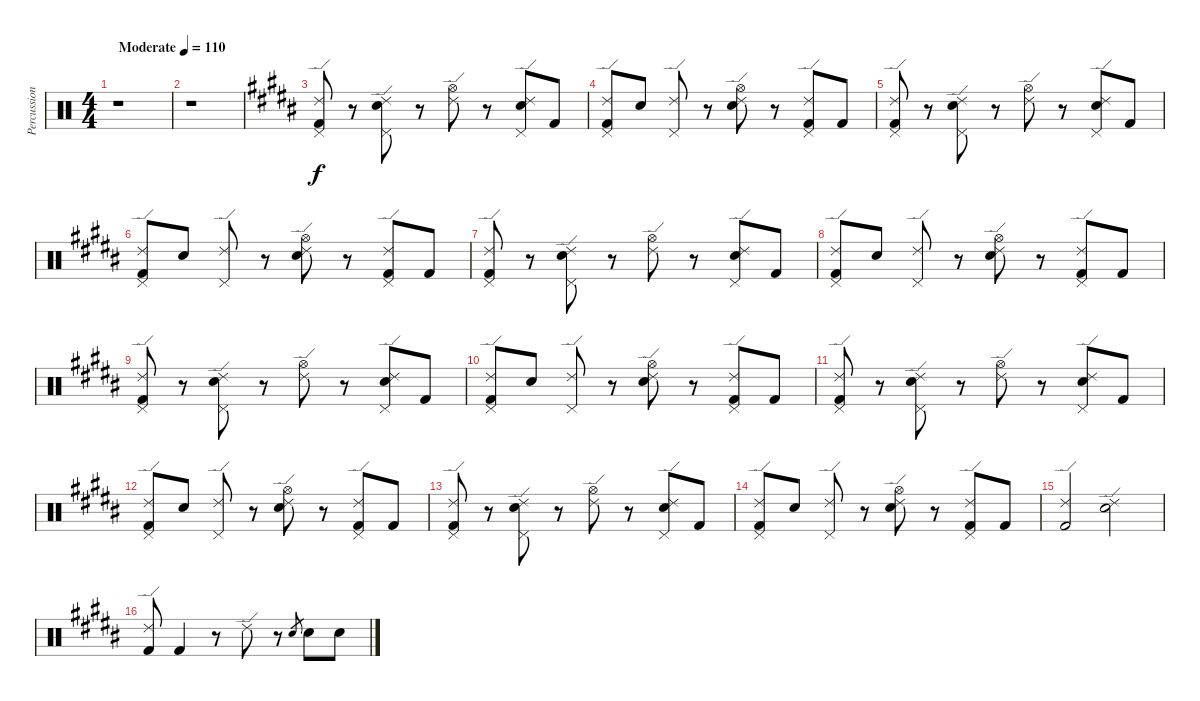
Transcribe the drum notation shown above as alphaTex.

\track ("Percussion" "Percussion") {instrument percussion}
\staff {score}
\articulation defaults
\ts (4 4)
\tempo (110 "Moderate")
\clef neutral
\ks c
r.1{dy f} |
r.1 |
\ks b
("Ride (edge) 2" "Pedal Hi-Hat (hit)" "Kick (hit) 2").8 r.8 ("Ride (edge) 2" "Pedal Hi-Hat (hit)" "Electric Snare (hit)").8 r.8 ("Ride (edge) 2" "Hi-Hat (open)").8 r.8 ("Ride (edge) 2" "Pedal Hi-Hat (hit)" "Electric Snare (hit)").8 "Kick (hit) 2".8 |
("Ride (edge) 2" "Pedal Hi-Hat (hit)" "Kick (hit) 2").8 "Electric Snare (hit)".8 ("Ride (edge) 2" "Pedal Hi-Hat (hit)").8 r.8 ("Ride (edge) 2" "Hi-Hat (open)" "Electric Snare (hit)").8 r.8 ("Ride (edge) 2" "Pedal Hi-Hat (hit)" "Kick (hit) 2").8 "Kick (hit) 2".8 |
("Ride (edge) 2" "Pedal Hi-Hat (hit)" "Kick (hit) 2").8 r.8 ("Ride (edge) 2" "Pedal Hi-Hat (hit)" "Electric Snare (hit)").8 r.8 ("Ride (edge) 2" "Hi-Hat (open)").8 r.8 ("Ride (edge) 2" "Pedal Hi-Hat (hit)" "Electric Snare (hit)").8 "Kick (hit) 2".8 |
("Ride (edge) 2" "Pedal Hi-Hat (hit)" "Kick (hit) 2").8 "Electric Snare (hit)".8 ("Ride (edge) 2" "Pedal Hi-Hat (hit)").8 r.8 ("Ride (edge) 2" "Hi-Hat (open)" "Electric Snare (hit)").8 r.8 ("Ride (edge) 2" "Pedal Hi-Hat (hit)" "Kick (hit) 2").8 "Kick (hit) 2".8 |
("Ride (edge) 2" "Pedal Hi-Hat (hit)" "Kick (hit) 2").8 r.8 ("Ride (edge) 2" "Pedal Hi-Hat (hit)" "Electric Snare (hit)").8 r.8 ("Ride (edge) 2" "Hi-Hat (open)").8 r.8 ("Ride (edge) 2" "Pedal Hi-Hat (hit)" "Electric Snare (hit)").8 "Kick (hit) 2".8 |
("Ride (edge) 2" "Pedal Hi-Hat (hit)" "Kick (hit) 2").8 "Electric Snare (hit)".8 ("Ride (edge) 2" "Pedal Hi-Hat (hit)").8 r.8 ("Ride (edge) 2" "Hi-Hat (open)" "Electric Snare (hit)").8 r.8 ("Ride (edge) 2" "Pedal Hi-Hat (hit)" "Kick (hit) 2").8 "Kick (hit) 2".8 |
("Ride (edge) 2" "Pedal Hi-Hat (hit)" "Kick (hit) 2").8 r.8 ("Ride (edge) 2" "Pedal Hi-Hat (hit)" "Electric Snare (hit)").8 r.8 ("Ride (edge) 2" "Hi-Hat (open)").8 r.8 ("Ride (edge) 2" "Pedal Hi-Hat (hit)" "Electric Snare (hit)").8 "Kick (hit) 2".8 |
("Ride (edge) 2" "Pedal Hi-Hat (hit)" "Kick (hit) 2").8 "Electric Snare (hit)".8 ("Ride (edge) 2" "Pedal Hi-Hat (hit)").8 r.8 ("Ride (edge) 2" "Hi-Hat (open)" "Electric Snare (hit)").8 r.8 ("Ride (edge) 2" "Pedal Hi-Hat (hit)" "Kick (hit) 2").8 "Kick (hit) 2".8 |
("Ride (edge) 2" "Pedal Hi-Hat (hit)" "Kick (hit) 2").8 r.8 ("Ride (edge) 2" "Pedal Hi-Hat (hit)" "Electric Snare (hit)").8 r.8 ("Ride (edge) 2" "Hi-Hat (open)").8 r.8 ("Ride (edge) 2" "Pedal Hi-Hat (hit)" "Electric Snare (hit)").8 "Kick (hit) 2".8 |
("Ride (edge) 2" "Pedal Hi-Hat (hit)" "Kick (hit) 2").8 "Electric Snare (hit)".8 ("Ride (edge) 2" "Pedal Hi-Hat (hit)").8 r.8 ("Ride (edge) 2" "Hi-Hat (open)" "Electric Snare (hit)").8 r.8 ("Ride (edge) 2" "Pedal Hi-Hat (hit)" "Kick (hit) 2").8 "Kick (hit) 2".8 |
("Ride (edge) 2" "Pedal Hi-Hat (hit)" "Kick (hit) 2").8 r.8 ("Ride (edge) 2" "Pedal Hi-Hat (hit)" "Electric Snare (hit)").8 r.8 ("Ride (edge) 2" "Hi-Hat (open)").8 r.8 ("Ride (edge) 2" "Pedal Hi-Hat (hit)" "Electric Snare (hit)").8 "Kick (hit) 2".8 |
("Ride (edge) 2" "Pedal Hi-Hat (hit)" "Kick (hit) 2").8 "Electric Snare (hit)".8 ("Ride (edge) 2" "Pedal Hi-Hat (hit)").8 r.8 ("Ride (edge) 2" "Hi-Hat (open)" "Electric Snare (hit)").8 r.8 ("Ride (edge) 2" "Pedal Hi-Hat (hit)" "Kick (hit) 2").8 "Kick (hit) 2".8 |
("Ride (edge) 2" "Kick (hit) 2").2 ("Ride (edge) 2" "Electric Snare (hit)").2 |
("Ride (edge) 2" "Kick (hit) 2").8 "Kick (hit) 2".4 r.8 "Ride (edge) 2".8 r.8 "Electric Snare (hit)".8{gr} "Electric Snare (hit)".8 "Electric Snare (hit)".8
